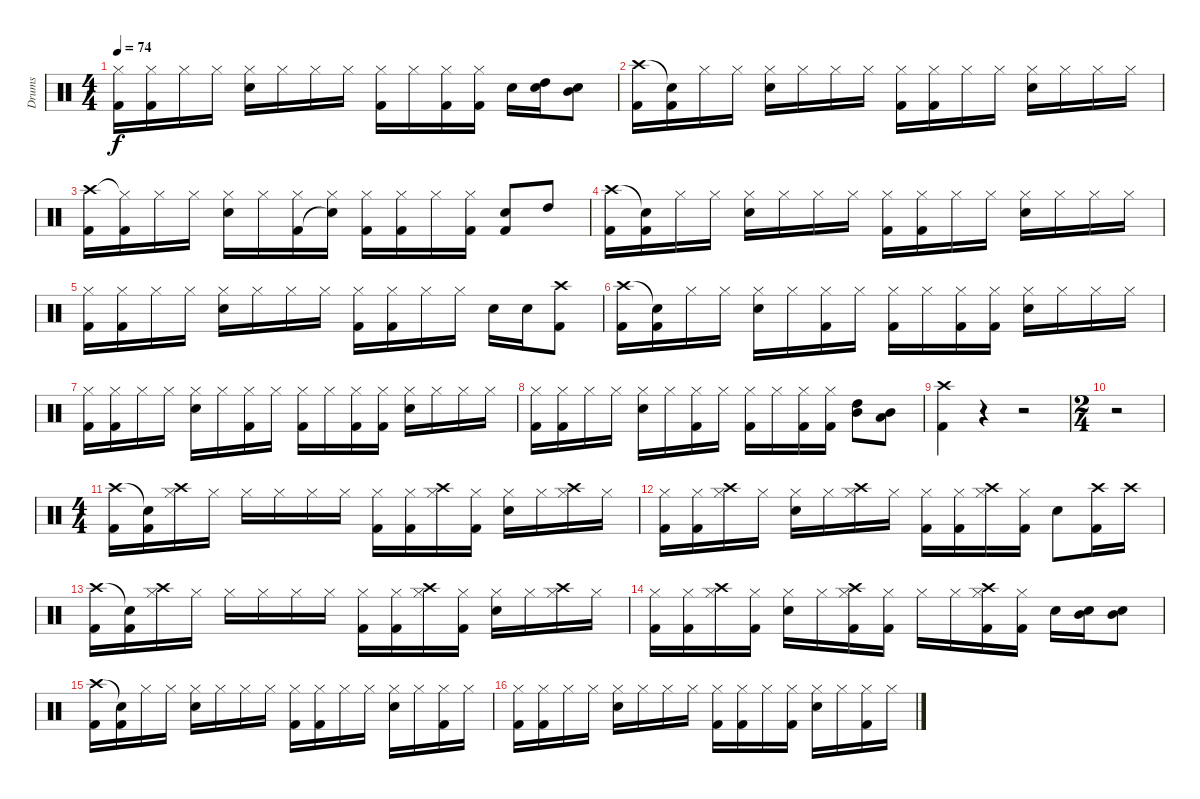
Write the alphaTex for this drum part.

\track ("Drums" "Drums") {instrument percussion}
\staff {score}
\articulation defaults
\ts (4 4)
\tempo 74
\clef neutral
\ks c
("Hi-Hat (closed)" "Kick (hit) 2").16{dy f} ("Hi-Hat (closed)" "Kick (hit) 2").16 "Hi-Hat (closed)".16 "Hi-Hat (closed)".16 ("Hi-Hat (closed)" "Electric Snare (hit)").16 "Hi-Hat (closed)".16 "Hi-Hat (closed)".16 "Hi-Hat (closed)".16 ("Hi-Hat (closed)" "Kick (hit) 2").16 "Hi-Hat (closed)".16 ("Hi-Hat (closed)" "Kick (hit) 2").16 ("Hi-Hat (closed)" "Kick (hit) 2").16 "Electric Snare (hit)".16 ("Electric Snare (hit)" "High Tom (hit)").16 ("Electric Snare (hit)" "Mid Tom (hit)").8 |
("Crash high (hit)" "Kick (hit) 2").16 ("Snare (hit)"{t} "Kick (hit) 2").16 "Hi-Hat (closed)".16 "Hi-Hat (closed)".16 ("Hi-Hat (closed)" "Electric Snare (hit)").16 "Hi-Hat (closed)".16 "Hi-Hat (closed)".16 "Hi-Hat (closed)".16 ("Hi-Hat (closed)" "Kick (hit) 2").16 ("Hi-Hat (closed)" "Kick (hit) 2").16 "Hi-Hat (closed)".16 "Hi-Hat (closed)".16 ("Hi-Hat (closed)" "Electric Snare (hit)").16 "Hi-Hat (closed)".16 "Hi-Hat (closed)".16 "Hi-Hat (closed)".16 |
("Crash high (hit)" "Kick (hit) 2").16 ("Hi-Hat (closed)"{t} "Kick (hit) 2").16 "Hi-Hat (closed)".16 "Hi-Hat (closed)".16 ("Hi-Hat (closed)" "Electric Snare (hit)").16 "Hi-Hat (closed)".16 ("Hi-Hat (closed)" "Kick (hit) 2").16 ("Hi-Hat (closed)" "Snare (hit)"{t}).16 ("Hi-Hat (closed)" "Kick (hit) 2").16 ("Hi-Hat (closed)" "Kick (hit) 2").16 "Hi-Hat (closed)".16 ("Hi-Hat (closed)" "Kick (hit) 2").16 ("Electric Snare (hit)" "Kick (hit) 2").8 "High Tom (hit)".8 |
("Crash high (hit)" "Kick (hit) 2").16 ("Snare (hit)"{t} "Kick (hit) 2").16 "Hi-Hat (closed)".16 "Hi-Hat (closed)".16 ("Hi-Hat (closed)" "Electric Snare (hit)").16 "Hi-Hat (closed)".16 "Hi-Hat (closed)".16 "Hi-Hat (closed)".16 ("Hi-Hat (closed)" "Kick (hit) 2").16 ("Hi-Hat (closed)" "Kick (hit) 2").16 "Hi-Hat (closed)".16 "Hi-Hat (closed)".16 ("Hi-Hat (closed)" "Electric Snare (hit)").16 "Hi-Hat (closed)".16 "Hi-Hat (closed)".16 "Hi-Hat (closed)".16 |
("Hi-Hat (closed)" "Kick (hit) 2").16 ("Hi-Hat (closed)" "Kick (hit) 2").16 "Hi-Hat (closed)".16 "Hi-Hat (closed)".16 ("Hi-Hat (closed)" "Electric Snare (hit)").16 "Hi-Hat (closed)".16 "Hi-Hat (closed)".16 "Hi-Hat (closed)".16 ("Hi-Hat (closed)" "Kick (hit) 2").16 ("Hi-Hat (closed)" "Kick (hit) 2").16 "Hi-Hat (closed)".16 "Hi-Hat (closed)".16 "Electric Snare (hit)".16 "Electric Snare (hit)".16 ("Crash high (hit)" "Kick (hit) 2").8 |
("Crash high (hit)" "Kick (hit) 2").16 ("Snare (hit)"{t} "Kick (hit) 2").16 "Hi-Hat (closed)".16 "Hi-Hat (closed)".16 ("Hi-Hat (closed)" "Electric Snare (hit)").16 "Hi-Hat (closed)".16 ("Hi-Hat (closed)" "Kick (hit) 2").16 "Hi-Hat (closed)".16 ("Hi-Hat (closed)" "Kick (hit) 2").16 "Hi-Hat (closed)".16 ("Hi-Hat (closed)" "Kick (hit) 2").16 ("Hi-Hat (closed)" "Kick (hit) 2").16 ("Hi-Hat (closed)" "Electric Snare (hit)").16 "Hi-Hat (closed)".16 "Hi-Hat (closed)".16 "Hi-Hat (closed)".16 |
("Hi-Hat (closed)" "Kick (hit) 2").16 ("Hi-Hat (closed)" "Kick (hit) 2").16 "Hi-Hat (closed)".16 "Hi-Hat (closed)".16 ("Hi-Hat (closed)" "Electric Snare (hit)").16 "Hi-Hat (closed)".16 ("Hi-Hat (closed)" "Kick (hit) 2").16 "Hi-Hat (closed)".16 ("Hi-Hat (closed)" "Kick (hit) 2").16 "Hi-Hat (closed)".16 ("Hi-Hat (closed)" "Kick (hit) 2").16 ("Hi-Hat (closed)" "Kick (hit) 2").16 ("Hi-Hat (closed)" "Electric Snare (hit)").16 "Hi-Hat (closed)".16 "Hi-Hat (closed)".16 "Hi-Hat (closed)".16 |
("Hi-Hat (closed)" "Kick (hit) 2").16 ("Hi-Hat (closed)" "Kick (hit) 2").16 "Hi-Hat (closed)".16 "Hi-Hat (closed)".16 ("Hi-Hat (closed)" "Electric Snare (hit)").16 "Hi-Hat (closed)".16 ("Hi-Hat (closed)" "Kick (hit) 2").16 "Hi-Hat (closed)".16 ("Hi-Hat (closed)" "Kick (hit) 2").16 "Hi-Hat (closed)".16 ("Hi-Hat (closed)" "Kick (hit) 2").16 ("Hi-Hat (closed)" "Kick (hit) 2").16 ("Mid Tom (hit)" "High Tom (hit)").8 ("Mid Tom (hit)" "Low Tom (hit)").8 |
("Crash high (hit)" "Kick (hit) 2").4 r.4 r.2 |
\ts (2 4)
r.2 |
\ts (4 4)
("Crash high (hit)" "Kick (hit) 2").16 ("Snare (hit)"{t} "Kick (hit) 2").16 ("Hi-Hat (closed)" "Crash high (hit)").16 "Hi-Hat (closed)".16 "Hi-Hat (closed)".16 "Hi-Hat (closed)".16 "Hi-Hat (closed)".16 "Hi-Hat (closed)".16 ("Hi-Hat (closed)" "Kick (hit) 2").16 ("Hi-Hat (closed)" "Kick (hit) 2").16 ("Hi-Hat (closed)" "Crash high (hit)").16 ("Hi-Hat (closed)" "Kick (hit) 2").16 ("Hi-Hat (closed)" "Electric Snare (hit)").16 "Hi-Hat (closed)".16 ("Hi-Hat (closed)" "Crash high (hit)").16 "Hi-Hat (closed)".16 |
("Hi-Hat (closed)" "Kick (hit) 2").16 ("Hi-Hat (closed)" "Kick (hit) 2").16 ("Hi-Hat (closed)" "Crash high (hit)").16 "Hi-Hat (closed)".16 ("Hi-Hat (closed)" "Electric Snare (hit)").16 "Hi-Hat (closed)".16 ("Hi-Hat (closed)" "Crash high (hit)").16 "Hi-Hat (closed)".16 ("Hi-Hat (closed)" "Kick (hit) 2").16 ("Hi-Hat (closed)" "Kick (hit) 2").16 ("Hi-Hat (closed)" "Crash high (hit)").16 ("Hi-Hat (closed)" "Kick (hit) 2").16 "Electric Snare (hit)".8 ("Kick (hit) 2" "Crash high (hit)").16 "Crash high (hit)".16 |
("Crash high (hit)" "Kick (hit) 2").16 ("Snare (hit)"{t} "Kick (hit) 2").16 ("Hi-Hat (closed)" "Crash high (hit)").16 "Hi-Hat (closed)".16 "Hi-Hat (closed)".16 "Hi-Hat (closed)".16 "Hi-Hat (closed)".16 "Hi-Hat (closed)".16 ("Hi-Hat (closed)" "Kick (hit) 2").16 ("Hi-Hat (closed)" "Kick (hit) 2").16 ("Hi-Hat (closed)" "Crash high (hit)").16 ("Hi-Hat (closed)" "Kick (hit) 2").16 ("Hi-Hat (closed)" "Electric Snare (hit)").16 "Hi-Hat (closed)".16 ("Hi-Hat (closed)" "Crash high (hit)").16 "Hi-Hat (closed)".16 |
("Hi-Hat (closed)" "Kick (hit) 2").16 ("Hi-Hat (closed)" "Kick (hit) 2").16 ("Hi-Hat (closed)" "Crash high (hit)").16 ("Hi-Hat (closed)" "Kick (hit) 2").16 ("Hi-Hat (closed)" "Electric Snare (hit)").16 "Hi-Hat (closed)".16 ("Hi-Hat (closed)" "Crash high (hit)" "Kick (hit) 2").16 ("Hi-Hat (closed)" "Kick (hit) 2").16 "Hi-Hat (closed)".16 "Hi-Hat (closed)".16 ("Hi-Hat (closed)" "Kick (hit) 2" "Crash high (hit)").16 ("Hi-Hat (closed)" "Kick (hit) 2").16 "Electric Snare (hit)".16 ("Electric Snare (hit)" "Mid Tom (hit)").16 ("Electric Snare (hit)" "Mid Tom (hit)").8 |
("Crash high (hit)" "Kick (hit) 2").16 ("Snare (hit)"{t} "Kick (hit) 2").16 "Hi-Hat (closed)".16 "Hi-Hat (closed)".16 ("Hi-Hat (closed)" "Electric Snare (hit)").16 "Hi-Hat (closed)".16 "Hi-Hat (closed)".16 "Hi-Hat (closed)".16 ("Hi-Hat (closed)" "Kick (hit) 2").16 ("Hi-Hat (closed)" "Kick (hit) 2").16 "Hi-Hat (closed)".16 "Hi-Hat (closed)".16 ("Hi-Hat (closed)" "Electric Snare (hit)").16 "Hi-Hat (closed)".16 ("Hi-Hat (closed)" "Kick (hit) 2").16 "Hi-Hat (closed)".16 |
("Hi-Hat (closed)" "Kick (hit) 2").16 ("Hi-Hat (closed)" "Kick (hit) 2").16 "Hi-Hat (closed)".16 "Hi-Hat (closed)".16 ("Hi-Hat (closed)" "Electric Snare (hit)").16 "Hi-Hat (closed)".16 "Hi-Hat (closed)".16 "Hi-Hat (closed)".16 ("Hi-Hat (closed)" "Kick (hit) 2").16 ("Hi-Hat (closed)" "Kick (hit) 2").16 "Hi-Hat (closed)".16 ("Hi-Hat (closed)" "Kick (hit) 2").16 ("Hi-Hat (closed)" "Electric Snare (hit)").16 "Hi-Hat (closed)".16 ("Hi-Hat (closed)" "Kick (hit) 2").16 "Hi-Hat (closed)".16
